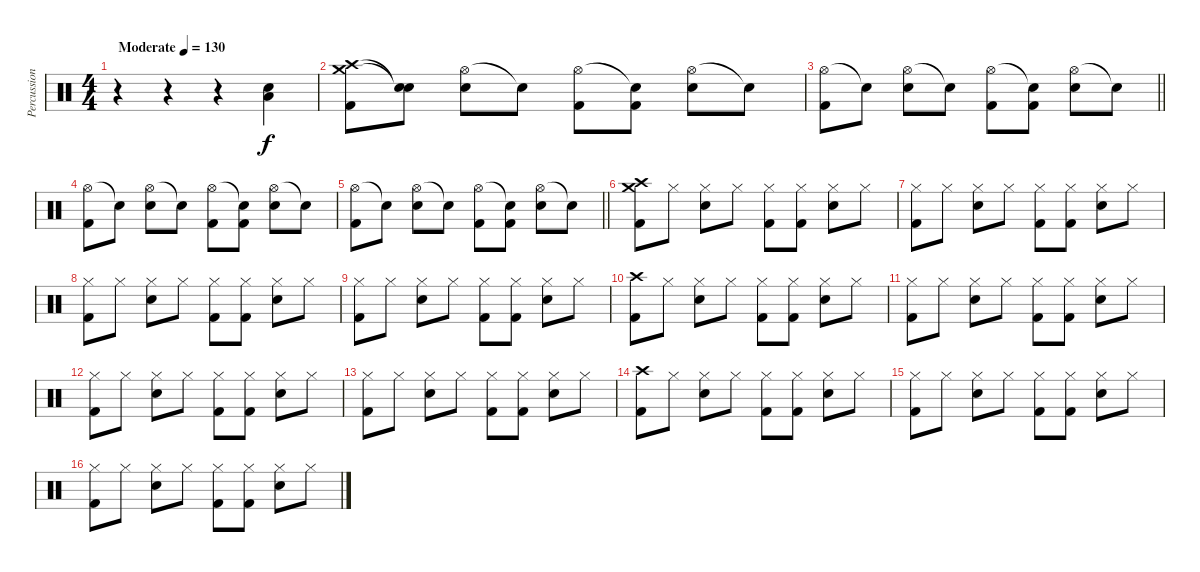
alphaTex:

\track ("Percussion" "Percussion") {instrument percussion}
\staff {score}
\articulation defaults
\ts (4 4)
\tempo (130 "Moderate")
\clef neutral
\ks c
r.4{dy f} r.4 r.4 ("Electric Snare (hit)" "Low Floor Tom (hit)").4 |
("Crash medium (hit)" "Crash high (hit)" "Kick (hit) 2").8 ("Snare (hit)"{t} "Snare (hit)"{t}).8 ("Hi-Hat (open)" "Electric Snare (hit)").8 "Snare (hit)"{t}.8 ("Hi-Hat (open)" "Kick (hit) 2").8 ("Snare (hit)"{t} "Kick (hit) 2").8 ("Hi-Hat (open)" "Electric Snare (hit)").8 "Snare (hit)"{t}.8 |
\barLineRight lightlight
("Hi-Hat (open)" "Kick (hit) 2").8 "Snare (hit)"{t}.8 ("Hi-Hat (open)" "Electric Snare (hit)").8 "Snare (hit)"{t}.8 ("Hi-Hat (open)" "Kick (hit) 2").8 ("Snare (hit)"{t} "Kick (hit) 2").8 ("Hi-Hat (open)" "Electric Snare (hit)").8 "Snare (hit)"{t}.8 |
("Hi-Hat (open)" "Kick (hit) 2").8 "Snare (hit)"{t}.8 ("Hi-Hat (open)" "Electric Snare (hit)").8 "Snare (hit)"{t}.8 ("Hi-Hat (open)" "Kick (hit) 2").8 ("Snare (hit)"{t} "Kick (hit) 2").8 ("Hi-Hat (open)" "Electric Snare (hit)").8 "Snare (hit)"{t}.8 |
\barLineRight lightlight
("Hi-Hat (open)" "Kick (hit) 2").8 "Snare (hit)"{t}.8 ("Hi-Hat (open)" "Electric Snare (hit)").8 "Snare (hit)"{t}.8 ("Hi-Hat (open)" "Kick (hit) 2").8 ("Snare (hit)"{t} "Kick (hit) 2").8 ("Hi-Hat (open)" "Electric Snare (hit)").8 "Snare (hit)"{t}.8 |
("Crash medium (hit)" "Crash high (hit)" "Kick (hit) 2").8 "Hi-Hat (closed)".8 ("Hi-Hat (closed)" "Electric Snare (hit)").8 "Hi-Hat (closed)".8 ("Hi-Hat (closed)" "Kick (hit) 2").8 ("Hi-Hat (closed)" "Kick (hit) 2").8 ("Hi-Hat (closed)" "Electric Snare (hit)").8 "Hi-Hat (closed)".8 |
("Hi-Hat (closed)" "Kick (hit) 2").8 "Hi-Hat (closed)".8 ("Hi-Hat (closed)" "Electric Snare (hit)").8 "Hi-Hat (closed)".8 ("Hi-Hat (closed)" "Kick (hit) 2").8 ("Hi-Hat (closed)" "Kick (hit) 2").8 ("Hi-Hat (closed)" "Electric Snare (hit)").8 "Hi-Hat (closed)".8 |
("Hi-Hat (closed)" "Kick (hit) 2").8 "Hi-Hat (closed)".8 ("Hi-Hat (closed)" "Electric Snare (hit)").8 "Hi-Hat (closed)".8 ("Hi-Hat (closed)" "Kick (hit) 2").8 ("Hi-Hat (closed)" "Kick (hit) 2").8 ("Hi-Hat (closed)" "Electric Snare (hit)").8 "Hi-Hat (closed)".8 |
("Hi-Hat (closed)" "Kick (hit) 2").8 "Hi-Hat (closed)".8 ("Hi-Hat (closed)" "Electric Snare (hit)").8 "Hi-Hat (closed)".8 ("Hi-Hat (closed)" "Kick (hit) 2").8 ("Hi-Hat (closed)" "Kick (hit) 2").8 ("Hi-Hat (closed)" "Electric Snare (hit)").8 "Hi-Hat (closed)".8 |
("Crash high (hit)" "Kick (hit) 2").8 "Hi-Hat (closed)".8 ("Hi-Hat (closed)" "Electric Snare (hit)").8 "Hi-Hat (closed)".8 ("Hi-Hat (closed)" "Kick (hit) 2").8 ("Hi-Hat (closed)" "Kick (hit) 2").8 ("Hi-Hat (closed)" "Electric Snare (hit)").8 "Hi-Hat (closed)".8 |
("Hi-Hat (closed)" "Kick (hit) 2").8 "Hi-Hat (closed)".8 ("Hi-Hat (closed)" "Electric Snare (hit)").8 "Hi-Hat (closed)".8 ("Hi-Hat (closed)" "Kick (hit) 2").8 ("Hi-Hat (closed)" "Kick (hit) 2").8 ("Hi-Hat (closed)" "Electric Snare (hit)").8 "Hi-Hat (closed)".8 |
("Hi-Hat (closed)" "Kick (hit) 2").8 "Hi-Hat (closed)".8 ("Hi-Hat (closed)" "Electric Snare (hit)").8 "Hi-Hat (closed)".8 ("Hi-Hat (closed)" "Kick (hit) 2").8 ("Hi-Hat (closed)" "Kick (hit) 2").8 ("Hi-Hat (closed)" "Electric Snare (hit)").8 "Hi-Hat (closed)".8 |
("Hi-Hat (closed)" "Kick (hit) 2").8 "Hi-Hat (closed)".8 ("Hi-Hat (closed)" "Electric Snare (hit)").8 "Hi-Hat (closed)".8 ("Hi-Hat (closed)" "Kick (hit) 2").8 ("Hi-Hat (closed)" "Kick (hit) 2").8 ("Hi-Hat (closed)" "Electric Snare (hit)").8 "Hi-Hat (closed)".8 |
("Crash high (hit)" "Kick (hit) 2").8 "Hi-Hat (closed)".8 ("Hi-Hat (closed)" "Electric Snare (hit)").8 "Hi-Hat (closed)".8 ("Hi-Hat (closed)" "Kick (hit) 2").8 ("Hi-Hat (closed)" "Kick (hit) 2").8 ("Hi-Hat (closed)" "Electric Snare (hit)").8 "Hi-Hat (closed)".8 |
("Hi-Hat (closed)" "Kick (hit) 2").8 "Hi-Hat (closed)".8 ("Hi-Hat (closed)" "Electric Snare (hit)").8 "Hi-Hat (closed)".8 ("Hi-Hat (closed)" "Kick (hit) 2").8 ("Hi-Hat (closed)" "Kick (hit) 2").8 ("Hi-Hat (closed)" "Electric Snare (hit)").8 "Hi-Hat (closed)".8 |
("Hi-Hat (closed)" "Kick (hit) 2").8 "Hi-Hat (closed)".8 ("Hi-Hat (closed)" "Electric Snare (hit)").8 "Hi-Hat (closed)".8 ("Hi-Hat (closed)" "Kick (hit) 2").8 ("Hi-Hat (closed)" "Kick (hit) 2").8 ("Hi-Hat (closed)" "Electric Snare (hit)").8 "Hi-Hat (closed)".8
